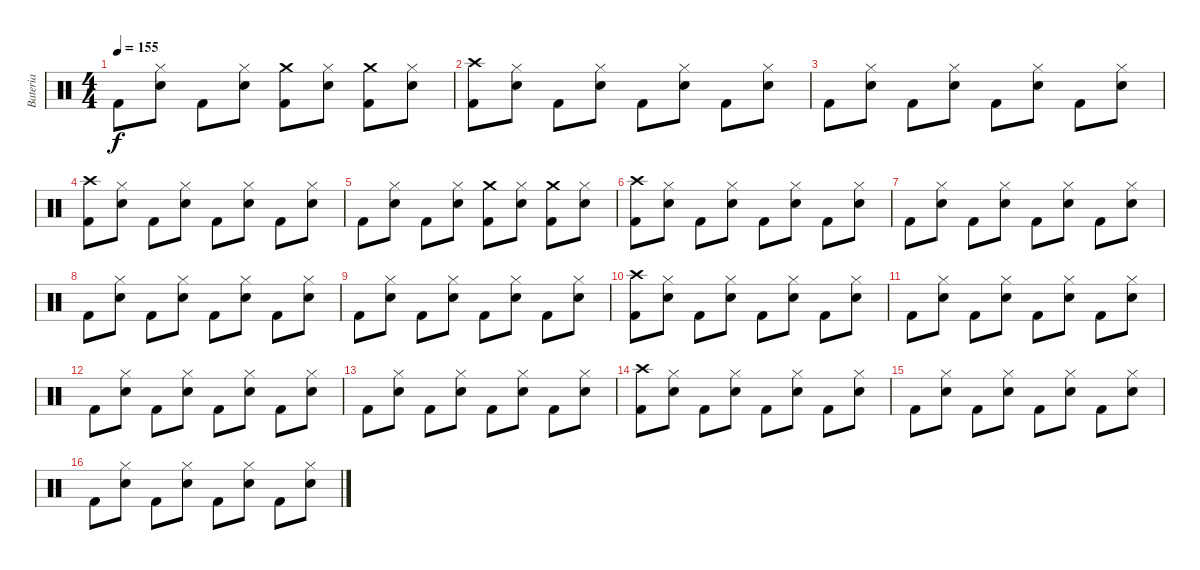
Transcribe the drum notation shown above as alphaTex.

\track ("Bateria" "Bateria") {instrument percussion}
\staff {score}
\articulation defaults
\ts (4 4)
\tempo 155
\clef neutral
\ks c "Kick (hit) 2".8{dy f}
("Electric Snare (hit)" "Hi-Hat (closed)").8 "Kick (hit) 2".8 ("Electric Snare (hit)" "Hi-Hat (closed)").8 ("Kick (hit) 2" "Crash medium (hit)").8 ("Electric Snare (hit)" "Hi-Hat (closed)").8 ("Kick (hit) 2" "Crash medium (hit)").8 ("Electric Snare (hit)" "Hi-Hat (closed)").8 |
("Kick (hit) 2" "Crash high (hit)").8 ("Electric Snare (hit)" "Hi-Hat (closed)").8 "Kick (hit) 2".8 ("Electric Snare (hit)" "Hi-Hat (closed)").8 "Kick (hit) 2".8 ("Electric Snare (hit)" "Hi-Hat (closed)").8 "Kick (hit) 2".8 ("Electric Snare (hit)" "Hi-Hat (closed)").8 |
"Kick (hit) 2".8 ("Electric Snare (hit)" "Hi-Hat (closed)").8 "Kick (hit) 2".8 ("Electric Snare (hit)" "Hi-Hat (closed)").8 "Kick (hit) 2".8 ("Electric Snare (hit)" "Hi-Hat (closed)").8 "Kick (hit) 2".8 ("Electric Snare (hit)" "Hi-Hat (closed)").8 |
("Kick (hit) 2" "Crash high (hit)").8 ("Electric Snare (hit)" "Hi-Hat (closed)").8 "Kick (hit) 2".8 ("Electric Snare (hit)" "Hi-Hat (closed)").8 "Kick (hit) 2".8 ("Electric Snare (hit)" "Hi-Hat (closed)").8 "Kick (hit) 2".8 ("Electric Snare (hit)" "Hi-Hat (closed)").8 |
"Kick (hit) 2".8 ("Electric Snare (hit)" "Hi-Hat (closed)").8 "Kick (hit) 2".8 ("Electric Snare (hit)" "Hi-Hat (closed)").8 ("Kick (hit) 2" "Crash medium (hit)").8 ("Electric Snare (hit)" "Hi-Hat (closed)").8 ("Kick (hit) 2" "Crash medium (hit)").8 ("Electric Snare (hit)" "Hi-Hat (closed)").8 |
("Kick (hit) 2" "Crash high (hit)").8 ("Electric Snare (hit)" "Hi-Hat (closed)").8 "Kick (hit) 2".8 ("Electric Snare (hit)" "Hi-Hat (closed)").8 "Kick (hit) 2".8 ("Electric Snare (hit)" "Hi-Hat (closed)").8 "Kick (hit) 2".8 ("Electric Snare (hit)" "Hi-Hat (closed)").8 |
"Kick (hit) 2".8 ("Electric Snare (hit)" "Hi-Hat (closed)").8 "Kick (hit) 2".8 ("Electric Snare (hit)" "Hi-Hat (closed)").8 "Kick (hit) 2".8 ("Electric Snare (hit)" "Hi-Hat (closed)").8 "Kick (hit) 2".8 ("Electric Snare (hit)" "Hi-Hat (closed)").8 |
"Kick (hit) 2".8 ("Electric Snare (hit)" "Hi-Hat (closed)").8 "Kick (hit) 2".8 ("Electric Snare (hit)" "Hi-Hat (closed)").8 "Kick (hit) 2".8 ("Electric Snare (hit)" "Hi-Hat (closed)").8 "Kick (hit) 2".8 ("Electric Snare (hit)" "Hi-Hat (closed)").8 |
"Kick (hit) 2".8 ("Electric Snare (hit)" "Hi-Hat (closed)").8 "Kick (hit) 2".8 ("Electric Snare (hit)" "Hi-Hat (closed)").8 "Kick (hit) 2".8 ("Electric Snare (hit)" "Hi-Hat (closed)").8 "Kick (hit) 2".8 ("Electric Snare (hit)" "Hi-Hat (closed)").8 |
("Kick (hit) 2" "Crash high (hit)").8 ("Electric Snare (hit)" "Hi-Hat (closed)").8 "Kick (hit) 2".8 ("Electric Snare (hit)" "Hi-Hat (closed)").8 "Kick (hit) 2".8 ("Electric Snare (hit)" "Hi-Hat (closed)").8 "Kick (hit) 2".8 ("Electric Snare (hit)" "Hi-Hat (closed)").8 |
"Kick (hit) 2".8 ("Electric Snare (hit)" "Hi-Hat (closed)").8 "Kick (hit) 2".8 ("Electric Snare (hit)" "Hi-Hat (closed)").8 "Kick (hit) 2".8 ("Electric Snare (hit)" "Hi-Hat (closed)").8 "Kick (hit) 2".8 ("Electric Snare (hit)" "Hi-Hat (closed)").8 |
"Kick (hit) 2".8 ("Electric Snare (hit)" "Hi-Hat (closed)").8 "Kick (hit) 2".8 ("Electric Snare (hit)" "Hi-Hat (closed)").8 "Kick (hit) 2".8 ("Electric Snare (hit)" "Hi-Hat (closed)").8 "Kick (hit) 2".8 ("Electric Snare (hit)" "Hi-Hat (closed)").8 |
"Kick (hit) 2".8 ("Electric Snare (hit)" "Hi-Hat (closed)").8 "Kick (hit) 2".8 ("Electric Snare (hit)" "Hi-Hat (closed)").8 "Kick (hit) 2".8 ("Electric Snare (hit)" "Hi-Hat (closed)").8 "Kick (hit) 2".8 ("Electric Snare (hit)" "Hi-Hat (closed)").8 |
("Kick (hit) 2" "Crash high (hit)").8 ("Electric Snare (hit)" "Hi-Hat (closed)").8 "Kick (hit) 2".8 ("Electric Snare (hit)" "Hi-Hat (closed)").8 "Kick (hit) 2".8 ("Electric Snare (hit)" "Hi-Hat (closed)").8 "Kick (hit) 2".8 ("Electric Snare (hit)" "Hi-Hat (closed)").8 |
"Kick (hit) 2".8 ("Electric Snare (hit)" "Hi-Hat (closed)").8 "Kick (hit) 2".8 ("Electric Snare (hit)" "Hi-Hat (closed)").8 "Kick (hit) 2".8 ("Electric Snare (hit)" "Hi-Hat (closed)").8 "Kick (hit) 2".8 ("Electric Snare (hit)" "Hi-Hat (closed)").8 |
"Kick (hit) 2".8 ("Electric Snare (hit)" "Hi-Hat (closed)").8 "Kick (hit) 2".8 ("Electric Snare (hit)" "Hi-Hat (closed)").8 "Kick (hit) 2".8 ("Electric Snare (hit)" "Hi-Hat (closed)").8 "Kick (hit) 2".8 ("Electric Snare (hit)" "Hi-Hat (closed)").8
